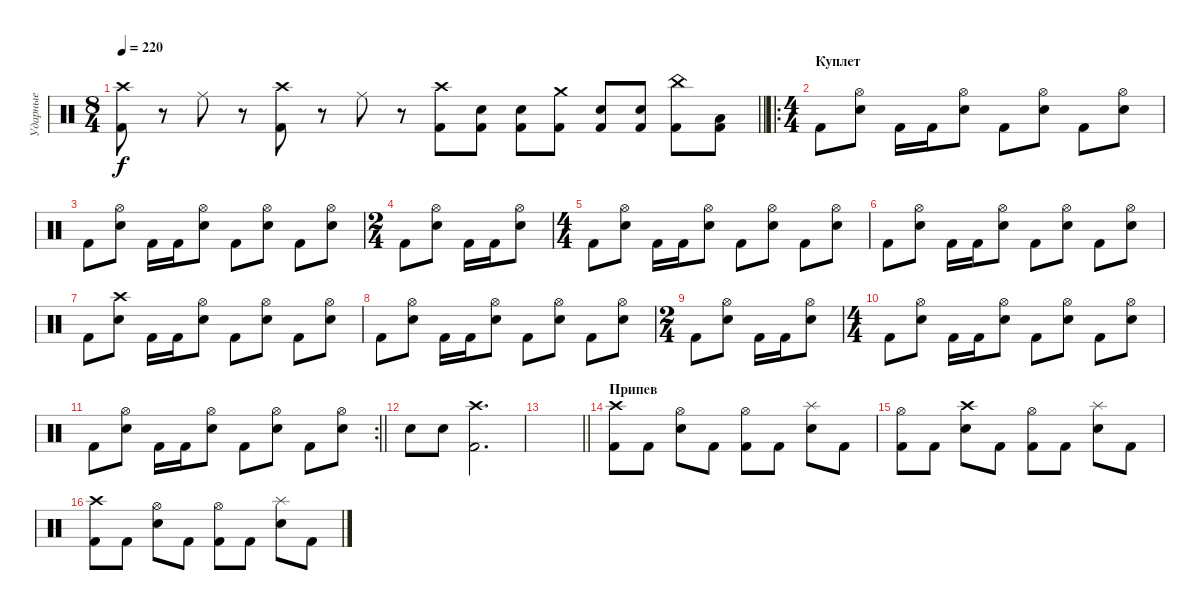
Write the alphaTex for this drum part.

\track ("Ударные" "Ударные") {instrument percussion}
\staff {score}
\articulation defaults
\ts (8 4)
\tempo 220
\clef neutral
\barLineRight lightlight
\ks c
("Kick (hit) 2" "Crash high (hit)").8{dy f} r.8 "Ride (middle)".8 r.8 ("Kick (hit) 2" "Crash high (hit)").8 r.8 "Ride (middle)".8 r.8 ("Kick (hit) 2" "Crash high (hit)").8 ("Kick (hit) 2" "Electric Snare (hit)").8 ("Kick (hit) 2" "Electric Snare (hit)").8 ("Kick (hit) 2" "Crash medium (hit)").8 ("Kick (hit) 2" "Electric Snare (hit)").8 ("Kick (hit) 2" "Electric Snare (hit)").8 ("Kick (hit) 2" "China (hit)").8 ("Kick (hit) 2" "Low Tom (hit)").8 |
\ro
\ts (4 4)
\section ("" "Куплет")
"Kick (hit) 2".8 ("Electric Snare (hit)" "Hi-Hat (open)").8 "Kick (hit) 2".16 "Kick (hit) 2".16 ("Electric Snare (hit)" "Hi-Hat (open)").8 "Kick (hit) 2".8 ("Electric Snare (hit)" "Hi-Hat (open)").8 "Kick (hit) 2".8 ("Electric Snare (hit)" "Hi-Hat (open)").8 |
"Kick (hit) 2".8 ("Electric Snare (hit)" "Hi-Hat (open)").8 "Kick (hit) 2".16 "Kick (hit) 2".16 ("Electric Snare (hit)" "Hi-Hat (open)").8 "Kick (hit) 2".8 ("Electric Snare (hit)" "Hi-Hat (open)").8 "Kick (hit) 2".8 ("Electric Snare (hit)" "Hi-Hat (open)").8 |
\ts (2 4)
"Kick (hit) 2".8 ("Electric Snare (hit)" "Hi-Hat (open)").8 "Kick (hit) 2".16 "Kick (hit) 2".16 ("Electric Snare (hit)" "Hi-Hat (open)").8 |
\ts (4 4)
"Kick (hit) 2".8 ("Electric Snare (hit)" "Hi-Hat (open)").8 "Kick (hit) 2".16 "Kick (hit) 2".16 ("Electric Snare (hit)" "Hi-Hat (open)").8 "Kick (hit) 2".8 ("Electric Snare (hit)" "Hi-Hat (open)").8 "Kick (hit) 2".8 ("Electric Snare (hit)" "Hi-Hat (open)").8 |
"Kick (hit) 2".8 ("Electric Snare (hit)" "Hi-Hat (open)").8 "Kick (hit) 2".16 "Kick (hit) 2".16 ("Electric Snare (hit)" "Hi-Hat (open)").8 "Kick (hit) 2".8 ("Electric Snare (hit)" "Hi-Hat (open)").8 "Kick (hit) 2".8 ("Electric Snare (hit)" "Hi-Hat (open)").8 |
"Kick (hit) 2".8 ("Electric Snare (hit)" "Crash high (hit)").8 "Kick (hit) 2".16 "Kick (hit) 2".16 ("Electric Snare (hit)" "Hi-Hat (open)").8 "Kick (hit) 2".8 ("Electric Snare (hit)" "Hi-Hat (open)").8 "Kick (hit) 2".8 ("Electric Snare (hit)" "Hi-Hat (open)").8 |
"Kick (hit) 2".8 ("Electric Snare (hit)" "Hi-Hat (open)").8 "Kick (hit) 2".16 "Kick (hit) 2".16 ("Electric Snare (hit)" "Hi-Hat (open)").8 "Kick (hit) 2".8 ("Electric Snare (hit)" "Hi-Hat (open)").8 "Kick (hit) 2".8 ("Electric Snare (hit)" "Hi-Hat (open)").8 |
\ts (2 4)
"Kick (hit) 2".8 ("Electric Snare (hit)" "Hi-Hat (open)").8 "Kick (hit) 2".16 "Kick (hit) 2".16 ("Electric Snare (hit)" "Hi-Hat (open)").8 |
\ts (4 4)
"Kick (hit) 2".8 ("Electric Snare (hit)" "Hi-Hat (open)").8 "Kick (hit) 2".16 "Kick (hit) 2".16 ("Electric Snare (hit)" "Hi-Hat (open)").8 "Kick (hit) 2".8 ("Electric Snare (hit)" "Hi-Hat (open)").8 "Kick (hit) 2".8 ("Electric Snare (hit)" "Hi-Hat (open)").8 |
\rc 2
\barLineRight lightlight "Kick (hit) 2".8
("Electric Snare (hit)" "Hi-Hat (open)").8 "Kick (hit) 2".16 "Kick (hit) 2".16 ("Electric Snare (hit)" "Hi-Hat (open)").8 "Kick (hit) 2".8 ("Electric Snare (hit)" "Hi-Hat (open)").8 "Kick (hit) 2".8 ("Electric Snare (hit)" "Hi-Hat (open)").8 |
"Electric Snare (hit)".8 "Electric Snare (hit)".8 ("Kick (hit) 2" "Crash high (hit)").2{d} |
\barLineRight lightlight
|
\section ("" "Припев")
("Kick (hit) 2" "Crash high (hit)").8 "Kick (hit) 2".8 ("Electric Snare (hit)" "Hi-Hat (open)").8 "Kick (hit) 2".8 ("Kick (hit) 2" "Hi-Hat (open)").8 "Kick (hit) 2".8 ("Electric Snare (hit)" "Splash (hit)").8 "Kick (hit) 2".8 |
("Kick (hit) 2" "Hi-Hat (open)").8 "Kick (hit) 2".8 ("Electric Snare (hit)" "Crash high (hit)").8 "Kick (hit) 2".8 ("Kick (hit) 2" "Hi-Hat (open)").8 "Kick (hit) 2".8 ("Electric Snare (hit)" "Splash (hit)").8 "Kick (hit) 2".8 |
("Kick (hit) 2" "Crash high (hit)").8 "Kick (hit) 2".8 ("Electric Snare (hit)" "Hi-Hat (open)").8 "Kick (hit) 2".8 ("Kick (hit) 2" "Hi-Hat (open)").8 "Kick (hit) 2".8 ("Electric Snare (hit)" "Splash (hit)").8 "Kick (hit) 2".8
